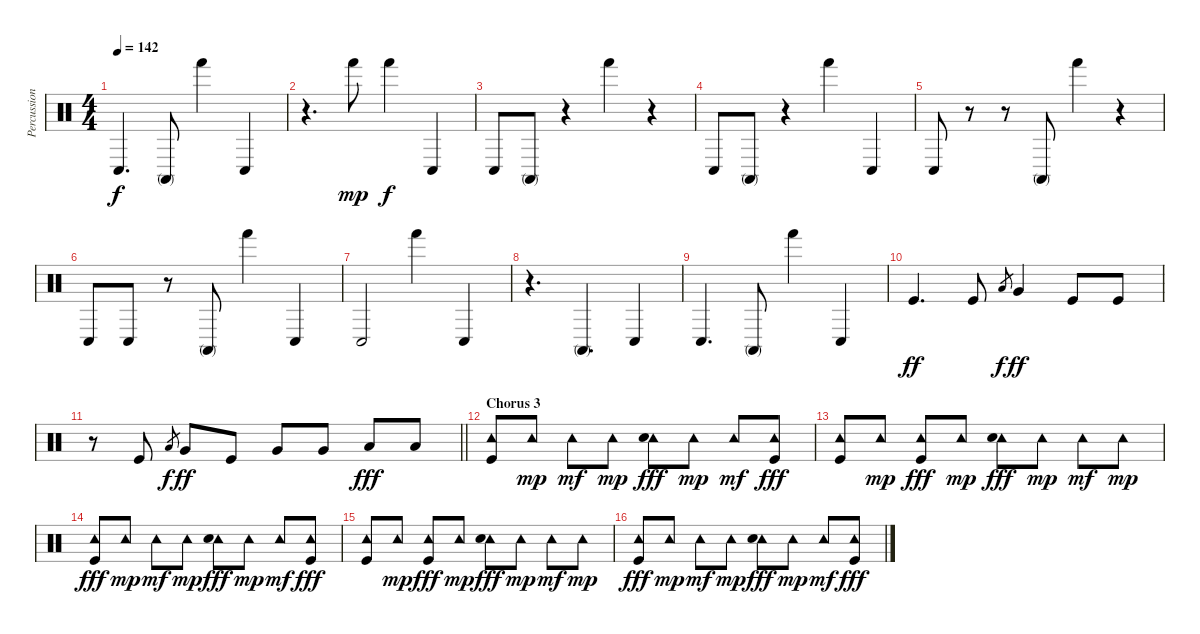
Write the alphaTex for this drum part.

\track ("Percussion" "Percussion") {instrument percussion}
\staff {score}
\articulation defaults
\ts (4 4)
\tempo 142
\clef neutral
\ks c "Conga low (hit)".4{d dy f} "Conga high (mute)".8 "Hand (hit)".4 "Conga low (hit)".4
|
r.4{d} "Hand (hit)".8{dy mp} "Hand (hit)".4{dy f} "Conga low (hit)".4 |
"Conga low (hit)".8 "Conga high (mute)".8 r.4 "Hand (hit)".4 r.4 |
"Conga low (hit)".8 "Conga high (mute)".8 r.4 "Hand (hit)".4 "Conga low (hit)".4 |
"Conga low (hit)".8 r.8 r.8 "Conga high (mute)".8 "Hand (hit)".4 r.4 |
"Conga low (hit)".8 "Conga low (hit)".8 r.8 "Conga high (mute)".8 "Hand (hit)".4 "Conga low (hit)".4 |
"Conga low (hit)".2 "Hand (hit)".4 "Conga low (hit)".4 |
r.4{d} "Conga high (mute)".4{d} "Conga low (hit)".4 |
"Conga low (hit)".4{d} "Conga high (mute)".8 "Hand (hit)".4 "Conga low (hit)".4 |
"Kick (hit)".4{d dy ff} "Kick (hit)".8 "Low Floor Tom (hit)".8{gr dy f} "Very Low Tom (hit)".4{dy ff} "Kick (hit)".8 "Kick (hit)".8 |
\barLineRight lightlight
r.8 "Kick (hit)".8 "Low Floor Tom (hit)".8{gr dy f} "Very Low Tom (hit)".8{dy ff} "Kick (hit)".8 "Very Low Tom (hit)".8 "Very Low Tom (hit)".8 "Low Floor Tom (hit)".8{dy fff} "Low Floor Tom (hit)".8 |
\section ("" "Chorus 3")
("Tambourine (hit)" "Kick (hit)").8 "Tambourine (hit)".8{dy mp} "Tambourine (hit)".8{dy mf} "Tambourine (hit)".8{dy mp} ("Tambourine (hit)" "Electric Snare (hit)").8{dy fff} "Tambourine (hit)".8{dy mp} "Tambourine (hit)".8{dy mf} ("Tambourine (hit)" "Kick (hit)").8{dy fff} |
("Tambourine (hit)" "Kick (hit)").8 "Tambourine (hit)".8{dy mp} ("Tambourine (hit)" "Kick (hit)").8{dy fff} "Tambourine (hit)".8{dy mp} ("Tambourine (hit)" "Electric Snare (hit)").8{dy fff} "Tambourine (hit)".8{dy mp} "Tambourine (hit)".8{dy mf} "Tambourine (hit)".8{dy mp} |
("Tambourine (hit)" "Kick (hit)").8{dy fff} "Tambourine (hit)".8{dy mp} "Tambourine (hit)".8{dy mf} "Tambourine (hit)".8{dy mp} ("Tambourine (hit)" "Electric Snare (hit)").8{dy fff} "Tambourine (hit)".8{dy mp} "Tambourine (hit)".8{dy mf} ("Tambourine (hit)" "Kick (hit)").8{dy fff} |
("Tambourine (hit)" "Kick (hit)").8 "Tambourine (hit)".8{dy mp} ("Tambourine (hit)" "Kick (hit)").8{dy fff} "Tambourine (hit)".8{dy mp} ("Tambourine (hit)" "Electric Snare (hit)").8{dy fff} "Tambourine (hit)".8{dy mp} "Tambourine (hit)".8{dy mf} "Tambourine (hit)".8{dy mp} |
("Tambourine (hit)" "Kick (hit)").8{dy fff} "Tambourine (hit)".8{dy mp} "Tambourine (hit)".8{dy mf} "Tambourine (hit)".8{dy mp} ("Tambourine (hit)" "Electric Snare (hit)").8{dy fff} "Tambourine (hit)".8{dy mp} "Tambourine (hit)".8{dy mf} ("Tambourine (hit)" "Kick (hit)").8{dy fff}
